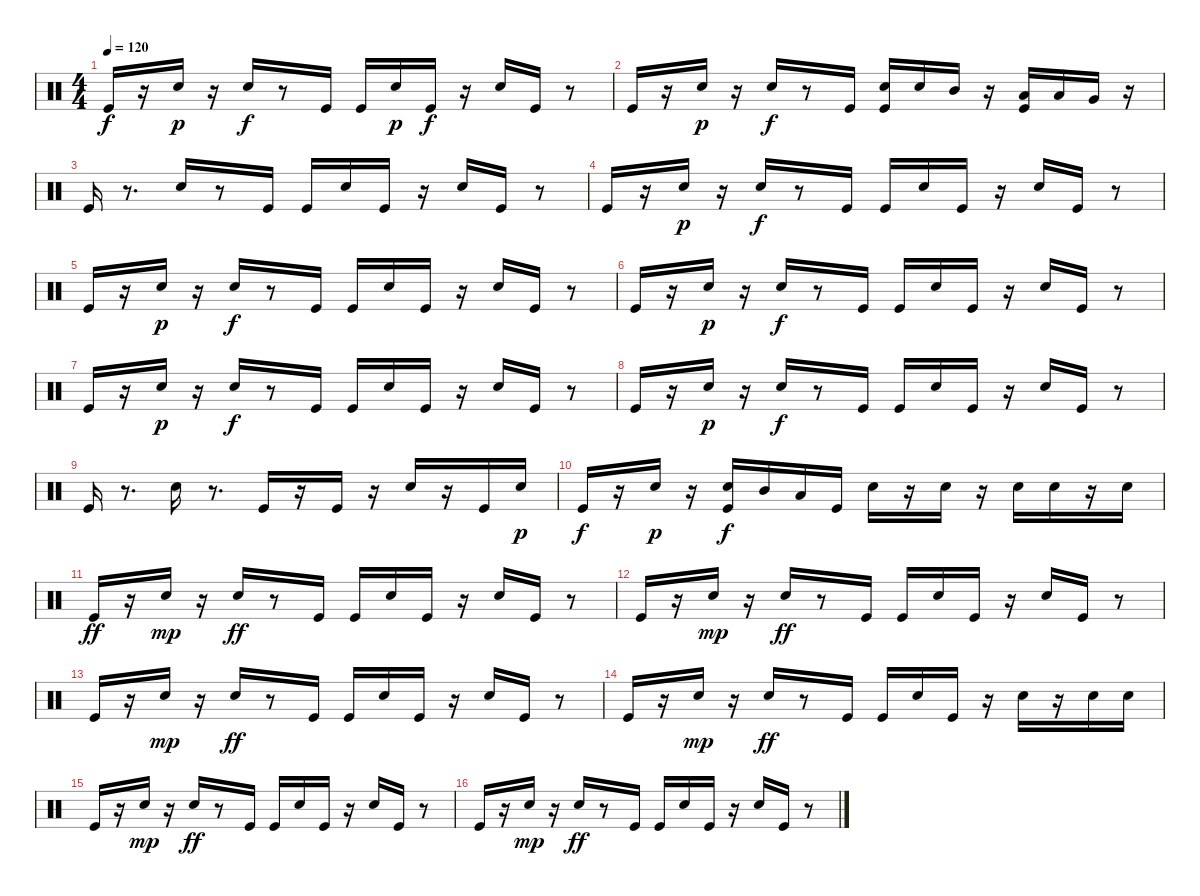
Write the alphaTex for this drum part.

\track "" {instrument percussion}
\staff {score}
\articulation defaults
\ts (4 4)
\tempo 120
\clef neutral
\ks c "Kick (hit)".16{dy f}
r.16 "Electric Snare (hit)".16{dy p} r.16 "Electric Snare (hit)".16{dy f} r.8 "Kick (hit)".16 "Kick (hit)".16 "Electric Snare (hit)".16{dy p} "Kick (hit)".16{dy f} r.16 "Electric Snare (hit)".16 "Kick (hit)".16 r.8 |
"Kick (hit)".16 r.16 "Electric Snare (hit)".16{dy p} r.16 "Electric Snare (hit)".16{dy f} r.8 "Kick (hit)".16 ("Electric Snare (hit)" "Kick (hit)").16 "Electric Snare (hit)".16 "Mid Tom (hit)".16 r.16 ("Low Tom (hit)" "Kick (hit)").16 "Low Tom (hit)".16 "Very Low Tom (hit)".16 r.16 |
"Kick (hit)".16 r.8{d} "Electric Snare (hit)".16 r.8 "Kick (hit)".16 "Kick (hit)".16 "Electric Snare (hit)".16 "Kick (hit)".16 r.16 "Electric Snare (hit)".16 "Kick (hit)".16 r.8 |
"Kick (hit)".16 r.16 "Electric Snare (hit)".16{dy p} r.16 "Electric Snare (hit)".16{dy f} r.8 "Kick (hit)".16 "Kick (hit)".16 "Electric Snare (hit)".16 "Kick (hit)".16 r.16 "Electric Snare (hit)".16 "Kick (hit)".16 r.8 |
"Kick (hit)".16 r.16 "Electric Snare (hit)".16{dy p} r.16 "Electric Snare (hit)".16{dy f} r.8 "Kick (hit)".16 "Kick (hit)".16 "Electric Snare (hit)".16 "Kick (hit)".16 r.16 "Electric Snare (hit)".16 "Kick (hit)".16 r.8 |
"Kick (hit)".16 r.16 "Electric Snare (hit)".16{dy p} r.16 "Electric Snare (hit)".16{dy f} r.8 "Kick (hit)".16 "Kick (hit)".16 "Electric Snare (hit)".16 "Kick (hit)".16 r.16 "Electric Snare (hit)".16 "Kick (hit)".16 r.8 |
"Kick (hit)".16 r.16 "Electric Snare (hit)".16{dy p} r.16 "Electric Snare (hit)".16{dy f} r.8 "Kick (hit)".16 "Kick (hit)".16 "Electric Snare (hit)".16 "Kick (hit)".16 r.16 "Electric Snare (hit)".16 "Kick (hit)".16 r.8 |
"Kick (hit)".16 r.16 "Electric Snare (hit)".16{dy p} r.16 "Electric Snare (hit)".16{dy f} r.8 "Kick (hit)".16 "Kick (hit)".16 "Electric Snare (hit)".16 "Kick (hit)".16 r.16 "Electric Snare (hit)".16 "Kick (hit)".16 r.8 |
"Kick (hit)".16 r.8{d} "Electric Snare (hit)".16 r.8{d} "Kick (hit)".16 r.16 "Kick (hit)".16 r.16 "Electric Snare (hit)".16 r.16 "Kick (hit)".16 "Electric Snare (hit)".16{dy p} |
"Kick (hit)".16{dy f} r.16 "Electric Snare (hit)".16{dy p} r.16 ("Kick (hit)" "Electric Snare (hit)").16{dy f} "Mid Tom (hit)".16 "Low Tom (hit)".16 "Kick (hit)".16 "Electric Snare (hit)".16 r.16 "Electric Snare (hit)".16 r.16 "Electric Snare (hit)".16 "Electric Snare (hit)".16 r.16 "Electric Snare (hit)".16 |
"Kick (hit)".16{dy ff} r.16 "Electric Snare (hit)".16{dy mp} r.16 "Electric Snare (hit)".16{dy ff} r.8 "Kick (hit)".16 "Kick (hit)".16 "Electric Snare (hit)".16 "Kick (hit)".16 r.16 "Electric Snare (hit)".16 "Kick (hit)".16 r.8 |
"Kick (hit)".16 r.16 "Electric Snare (hit)".16{dy mp} r.16 "Electric Snare (hit)".16{dy ff} r.8 "Kick (hit)".16 "Kick (hit)".16 "Electric Snare (hit)".16 "Kick (hit)".16 r.16 "Electric Snare (hit)".16 "Kick (hit)".16 r.8 |
"Kick (hit)".16 r.16 "Electric Snare (hit)".16{dy mp} r.16 "Electric Snare (hit)".16{dy ff} r.8 "Kick (hit)".16 "Kick (hit)".16 "Electric Snare (hit)".16 "Kick (hit)".16 r.16 "Electric Snare (hit)".16 "Kick (hit)".16 r.8 |
"Kick (hit)".16 r.16 "Electric Snare (hit)".16{dy mp} r.16 "Electric Snare (hit)".16{dy ff} r.8 "Kick (hit)".16 "Kick (hit)".16 "Electric Snare (hit)".16 "Kick (hit)".16 r.16 "Electric Snare (hit)".16 r.16 "Electric Snare (hit)".16 "Electric Snare (hit)".16 |
"Kick (hit)".16 r.16 "Electric Snare (hit)".16{dy mp} r.16 "Electric Snare (hit)".16{dy ff} r.8 "Kick (hit)".16 "Kick (hit)".16 "Electric Snare (hit)".16 "Kick (hit)".16 r.16 "Electric Snare (hit)".16 "Kick (hit)".16 r.8 |
"Kick (hit)".16 r.16 "Electric Snare (hit)".16{dy mp} r.16 "Electric Snare (hit)".16{dy ff} r.8 "Kick (hit)".16 "Kick (hit)".16 "Electric Snare (hit)".16 "Kick (hit)".16 r.16 "Electric Snare (hit)".16 "Kick (hit)".16 r.8
